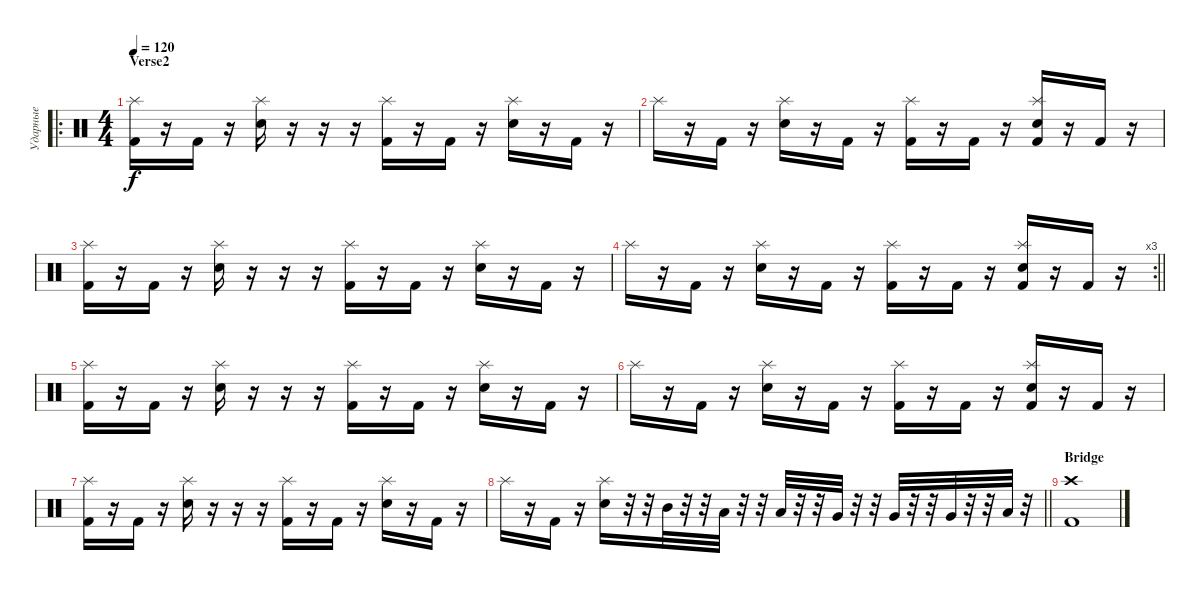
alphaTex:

\track ("Ударные" "Ударные") {instrument percussion}
\staff {score}
\articulation defaults
\ro
\ts (4 4)
\section ("" "Verse2")
\tempo 120
\clef neutral
\ks c
("Kick (hit) 2" "Splash (hit)").16{dy f} r.16 "Kick (hit) 2".16 r.16 ("Splash (hit)" "Snare (hit) 2").16 r.16 r.16 r.16 ("Kick (hit) 2" "Splash (hit)").16 r.16 "Kick (hit) 2".16 r.16 ("Splash (hit)" "Snare (hit) 2").16 r.16 "Kick (hit) 2".16 r.16 |
"Splash (hit)".16 r.16 "Kick (hit) 2".16 r.16 ("Splash (hit)" "Snare (hit) 2").16 r.16 "Kick (hit) 2".16 r.16 ("Kick (hit) 2" "Splash (hit)").16 r.16 "Kick (hit) 2".16 r.16 ("Kick (hit) 2" "Splash (hit)" "Snare (hit) 2").16 r.16 "Kick (hit) 2".16 r.16 |
("Kick (hit) 2" "Splash (hit)").16 r.16 "Kick (hit) 2".16 r.16 ("Splash (hit)" "Snare (hit) 2").16 r.16 r.16 r.16 ("Kick (hit) 2" "Splash (hit)").16 r.16 "Kick (hit) 2".16 r.16 ("Splash (hit)" "Snare (hit) 2").16 r.16 "Kick (hit) 2".16 r.16 |
\rc 3
\barLineRight lightlight "Splash (hit)".16
r.16 "Kick (hit) 2".16 r.16 ("Splash (hit)" "Snare (hit) 2").16 r.16 "Kick (hit) 2".16 r.16 ("Kick (hit) 2" "Splash (hit)").16 r.16 "Kick (hit) 2".16 r.16 ("Kick (hit) 2" "Splash (hit)" "Snare (hit) 2").16 r.16 "Kick (hit) 2".16 r.16 |
("Kick (hit) 2" "Splash (hit)").16 r.16 "Kick (hit) 2".16 r.16 ("Splash (hit)" "Snare (hit) 2").16 r.16 r.16 r.16 ("Kick (hit) 2" "Splash (hit)").16 r.16 "Kick (hit) 2".16 r.16 ("Splash (hit)" "Snare (hit) 2").16 r.16 "Kick (hit) 2".16 r.16 |
"Splash (hit)".16 r.16 "Kick (hit) 2".16 r.16 ("Splash (hit)" "Snare (hit) 2").16 r.16 "Kick (hit) 2".16 r.16 ("Kick (hit) 2" "Splash (hit)").16 r.16 "Kick (hit) 2".16 r.16 ("Kick (hit) 2" "Splash (hit)" "Snare (hit) 2").16 r.16 "Kick (hit) 2".16 r.16 |
("Kick (hit) 2" "Splash (hit)").16 r.16 "Kick (hit) 2".16 r.16 ("Splash (hit)" "Snare (hit) 2").16 r.16 r.16 r.16 ("Kick (hit) 2" "Splash (hit)").16 r.16 "Kick (hit) 2".16 r.16 ("Splash (hit)" "Snare (hit) 2").16 r.16 "Kick (hit) 2".16 r.16 |
\barLineRight lightlight "Splash (hit)".16
r.16 "Kick (hit) 2".16 r.16 ("Splash (hit)" "Snare (hit) 2").16 r.32 r.32 "Mid Tom (hit)".32 r.32 r.32 "Low Tom (hit)".32 r.32 r.32 "Low Tom (hit)".32 r.32 r.32 "Very Low Tom (hit)".32 r.32 r.32 "Very Low Tom (hit)".32 r.32 r.32 "Very Low Tom (hit)".32 r.32 r.32 "Low Floor Tom (hit)".32 r.32 |
\section ("" "Bridge")
("Kick (hit) 2" "Crash high (hit)").1
